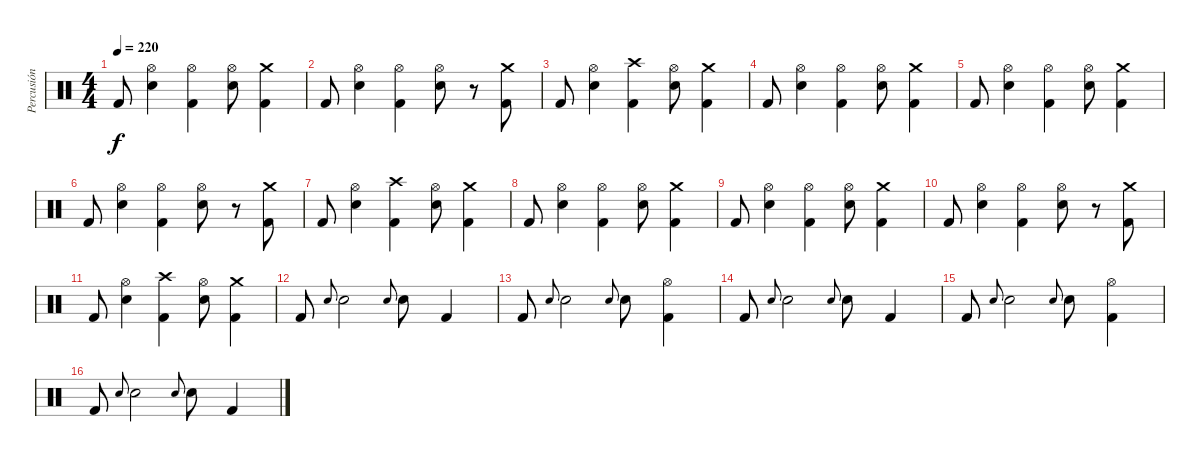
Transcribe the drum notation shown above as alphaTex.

\track ("Percusión" "Percusión") {instrument percussion}
\staff {score}
\articulation defaults
\ts (4 4)
\tempo 220
\clef neutral
\ks c "Kick (hit) 2".8{dy f}
("Hi-Hat (open)" "Snare (hit) 2").4 ("Hi-Hat (open)" "Kick (hit) 2").4 ("Hi-Hat (open)" "Snare (hit) 2").8 ("Crash medium (hit)" "Kick (hit) 2").4 |
"Kick (hit) 2".8 ("Hi-Hat (open)" "Snare (hit) 2").4 ("Hi-Hat (open)" "Kick (hit) 2").4 ("Hi-Hat (open)" "Snare (hit) 2").8 r.8 ("Crash medium (hit)" "Kick (hit) 2").8 |
"Kick (hit) 2".8 ("Hi-Hat (open)" "Snare (hit) 2").4 ("Crash high (hit)" "Kick (hit) 2").4 ("Hi-Hat (open)" "Snare (hit) 2").8 ("Crash medium (hit)" "Kick (hit) 2").4 |
"Kick (hit) 2".8 ("Hi-Hat (open)" "Snare (hit) 2").4 ("Hi-Hat (open)" "Kick (hit) 2").4 ("Hi-Hat (open)" "Snare (hit) 2").8 ("Crash medium (hit)" "Kick (hit) 2").4 |
"Kick (hit) 2".8 ("Hi-Hat (open)" "Snare (hit) 2").4 ("Hi-Hat (open)" "Kick (hit) 2").4 ("Hi-Hat (open)" "Snare (hit) 2").8 ("Crash medium (hit)" "Kick (hit) 2").4 |
"Kick (hit) 2".8 ("Hi-Hat (open)" "Snare (hit) 2").4 ("Hi-Hat (open)" "Kick (hit) 2").4 ("Hi-Hat (open)" "Snare (hit) 2").8 r.8 ("Crash medium (hit)" "Kick (hit) 2").8 |
"Kick (hit) 2".8 ("Hi-Hat (open)" "Snare (hit) 2").4 ("Crash high (hit)" "Kick (hit) 2").4 ("Hi-Hat (open)" "Snare (hit) 2").8 ("Crash medium (hit)" "Kick (hit) 2").4 |
"Kick (hit) 2".8 ("Hi-Hat (open)" "Snare (hit) 2").4 ("Hi-Hat (open)" "Kick (hit) 2").4 ("Hi-Hat (open)" "Snare (hit) 2").8 ("Crash medium (hit)" "Kick (hit) 2").4 |
"Kick (hit) 2".8 ("Hi-Hat (open)" "Snare (hit) 2").4 ("Hi-Hat (open)" "Kick (hit) 2").4 ("Hi-Hat (open)" "Snare (hit) 2").8 ("Crash medium (hit)" "Kick (hit) 2").4 |
"Kick (hit) 2".8 ("Hi-Hat (open)" "Snare (hit) 2").4 ("Hi-Hat (open)" "Kick (hit) 2").4 ("Hi-Hat (open)" "Snare (hit) 2").8 r.8 ("Crash medium (hit)" "Kick (hit) 2").8 |
"Kick (hit) 2".8 ("Hi-Hat (open)" "Snare (hit) 2").4 ("Crash high (hit)" "Kick (hit) 2").4 ("Hi-Hat (open)" "Snare (hit) 2").8 ("Crash medium (hit)" "Kick (hit) 2").4 |
"Kick (hit) 2".8 "Snare (hit) 2".8{gr onbeat} "Snare (hit) 2".2 "Snare (hit) 2".8{gr onbeat} "Snare (hit) 2".8 "Kick (hit) 2".4 |
"Kick (hit) 2".8 "Snare (hit) 2".8{gr onbeat} "Snare (hit) 2".2 "Snare (hit) 2".8{gr onbeat} "Snare (hit) 2".8 ("Hi-Hat (open)" "Kick (hit) 2").4 |
"Kick (hit) 2".8 "Snare (hit) 2".8{gr onbeat} "Snare (hit) 2".2 "Snare (hit) 2".8{gr onbeat} "Snare (hit) 2".8 "Kick (hit) 2".4 |
"Kick (hit) 2".8 "Snare (hit) 2".8{gr onbeat} "Snare (hit) 2".2 "Snare (hit) 2".8{gr onbeat} "Snare (hit) 2".8 ("Hi-Hat (open)" "Kick (hit) 2").4 |
"Kick (hit) 2".8 "Snare (hit) 2".8{gr onbeat} "Snare (hit) 2".2 "Snare (hit) 2".8{gr onbeat} "Snare (hit) 2".8 "Kick (hit) 2".4
